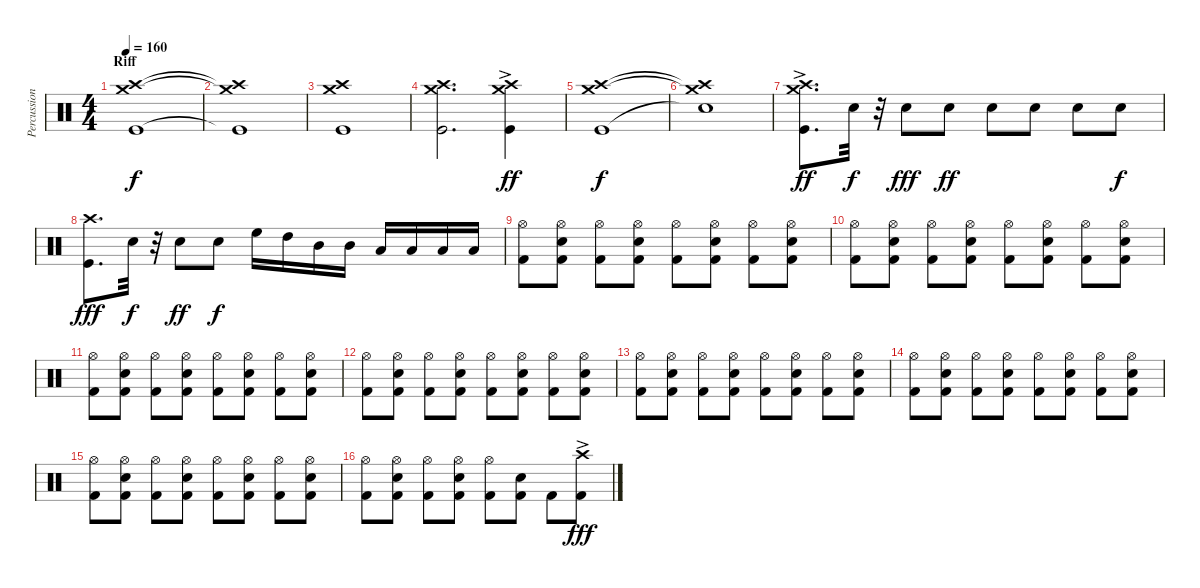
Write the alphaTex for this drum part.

\track ("Percussioni" "Percussion") {instrument percussion}
\staff {score}
\articulation defaults
\ts (4 4)
\section ("" "Riff")
\tempo 160
\clef neutral
\ks c
("Crash high (hit)" "Crash medium (hit)" "Kick (hit)").1{dy f} |
("Crash high (hit)"{t} "Crash medium (hit)"{t} "Kick (hit)"{t}).1 |
("Crash high (hit)" "Crash medium (hit)" "Kick (hit)").1 |
("Crash high (hit)" "Crash medium (hit)" "Kick (hit)").2{d} ("Crash high (hit)"{ac} "Crash medium (hit)"{ac} "Kick (hit)"{ac}).4{dy ff} |
("Crash high (hit)" "Crash medium (hit)" "Kick (hit)").1{dy f} |
("Crash high (hit)"{t} "Crash medium (hit)"{t} "Snare (hit)"{t}).1 |
("Crash high (hit)"{ac} "Crash medium (hit)"{ac} "Kick (hit)"{ac}).8{d dy ff} "Snare (hit) 2".32{dy f} r.32 "Snare (hit) 2".8{dy fff} "Snare (hit) 2".8{dy ff} "Snare (hit) 2".8 "Snare (hit) 2".8 "Snare (hit) 2".8 "Snare (hit) 2".8{dy f} |
("Crash high (hit)" "Kick (hit)").8{d dy fff} "Snare (hit) 2".32{dy f} r.32 "Snare (hit) 2".8{dy ff} "Snare (hit) 2".8{dy f} "High Floor Tom (hit)".16 "High Tom (hit)".16 "Mid Tom (hit)".16 "Mid Tom (hit)".16 "Low Tom (hit)".16 "Low Tom (hit)".16 "Low Floor Tom (hit)".16 "Low Floor Tom (hit)".16 |
("Hi-Hat (open)" "Kick (hit) 2").8 ("Hi-Hat (open)" "Snare (hit) 2" "Kick (hit) 2").8 ("Hi-Hat (open)" "Kick (hit) 2").8 ("Hi-Hat (open)" "Snare (hit) 2" "Kick (hit) 2").8 ("Hi-Hat (open)" "Kick (hit) 2").8 ("Hi-Hat (open)" "Snare (hit) 2" "Kick (hit) 2").8 ("Hi-Hat (open)" "Kick (hit) 2").8 ("Hi-Hat (open)" "Snare (hit) 2" "Kick (hit) 2").8 |
("Hi-Hat (open)" "Kick (hit) 2").8 ("Hi-Hat (open)" "Snare (hit) 2" "Kick (hit) 2").8 ("Hi-Hat (open)" "Kick (hit) 2").8 ("Hi-Hat (open)" "Snare (hit) 2" "Kick (hit) 2").8 ("Hi-Hat (open)" "Kick (hit) 2").8 ("Hi-Hat (open)" "Snare (hit) 2" "Kick (hit) 2").8 ("Hi-Hat (open)" "Kick (hit) 2").8 ("Hi-Hat (open)" "Snare (hit) 2" "Kick (hit) 2").8 |
("Hi-Hat (open)" "Kick (hit) 2").8 ("Hi-Hat (open)" "Snare (hit) 2" "Kick (hit) 2").8 ("Hi-Hat (open)" "Kick (hit) 2").8 ("Hi-Hat (open)" "Snare (hit) 2" "Kick (hit) 2").8 ("Hi-Hat (open)" "Kick (hit) 2").8 ("Hi-Hat (open)" "Snare (hit) 2" "Kick (hit) 2").8 ("Hi-Hat (open)" "Kick (hit) 2").8 ("Hi-Hat (open)" "Snare (hit) 2" "Kick (hit) 2").8 |
("Hi-Hat (open)" "Kick (hit) 2").8 ("Hi-Hat (open)" "Snare (hit) 2" "Kick (hit) 2").8 ("Hi-Hat (open)" "Kick (hit) 2").8 ("Hi-Hat (open)" "Snare (hit) 2" "Kick (hit) 2").8 ("Hi-Hat (open)" "Kick (hit) 2").8 ("Hi-Hat (open)" "Snare (hit) 2" "Kick (hit) 2").8 ("Hi-Hat (open)" "Kick (hit) 2").8 ("Hi-Hat (open)" "Snare (hit) 2" "Kick (hit) 2").8 |
("Hi-Hat (open)" "Kick (hit) 2").8 ("Hi-Hat (open)" "Snare (hit) 2" "Kick (hit) 2").8 ("Hi-Hat (open)" "Kick (hit) 2").8 ("Hi-Hat (open)" "Snare (hit) 2" "Kick (hit) 2").8 ("Hi-Hat (open)" "Kick (hit) 2").8 ("Hi-Hat (open)" "Snare (hit) 2" "Kick (hit) 2").8 ("Hi-Hat (open)" "Kick (hit) 2").8 ("Hi-Hat (open)" "Snare (hit) 2" "Kick (hit) 2").8 |
("Hi-Hat (open)" "Kick (hit) 2").8 ("Hi-Hat (open)" "Snare (hit) 2" "Kick (hit) 2").8 ("Hi-Hat (open)" "Kick (hit) 2").8 ("Hi-Hat (open)" "Snare (hit) 2" "Kick (hit) 2").8 ("Hi-Hat (open)" "Kick (hit) 2").8 ("Hi-Hat (open)" "Snare (hit) 2" "Kick (hit) 2").8 ("Hi-Hat (open)" "Kick (hit) 2").8 ("Hi-Hat (open)" "Snare (hit) 2" "Kick (hit) 2").8 |
("Hi-Hat (open)" "Kick (hit) 2").8 ("Hi-Hat (open)" "Snare (hit) 2" "Kick (hit) 2").8 ("Hi-Hat (open)" "Kick (hit) 2").8 ("Hi-Hat (open)" "Snare (hit) 2" "Kick (hit) 2").8 ("Hi-Hat (open)" "Kick (hit) 2").8 ("Hi-Hat (open)" "Snare (hit) 2" "Kick (hit) 2").8 ("Hi-Hat (open)" "Kick (hit) 2").8 ("Hi-Hat (open)" "Snare (hit) 2" "Kick (hit) 2").8 |
("Hi-Hat (open)" "Kick (hit) 2").8 ("Hi-Hat (open)" "Snare (hit) 2" "Kick (hit) 2").8 ("Hi-Hat (open)" "Kick (hit) 2").8 ("Hi-Hat (open)" "Snare (hit) 2" "Kick (hit) 2").8 ("Hi-Hat (open)" "Kick (hit) 2").8 ("Snare (hit) 2" "Kick (hit) 2").8 "Kick (hit) 2".8 ("Crash high (hit)"{ac} "Kick (hit) 2").8{dy fff}
